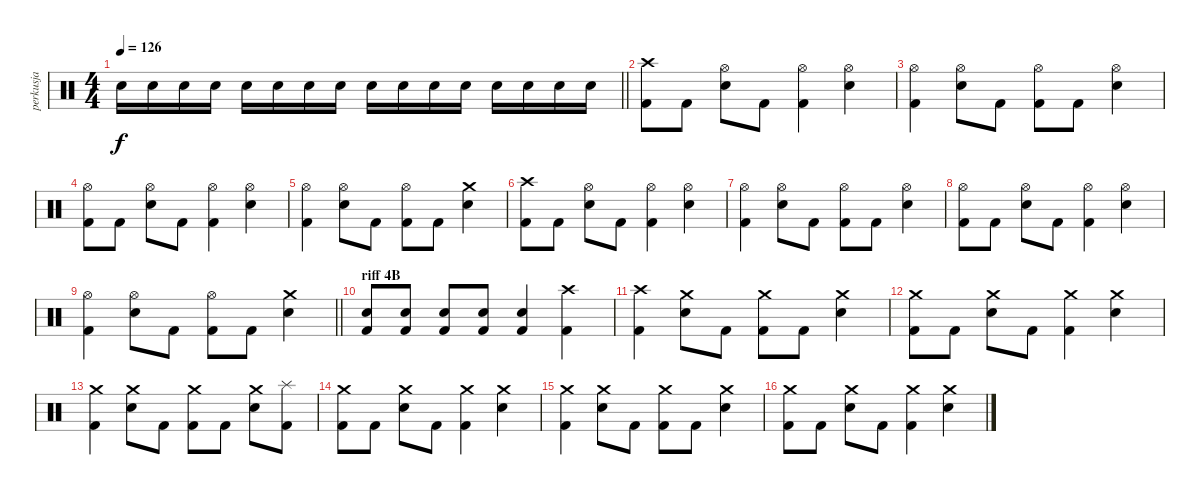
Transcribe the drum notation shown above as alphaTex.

\track ("perkusja" "perkusja") {instrument percussion}
\staff {score}
\articulation defaults
\ts (4 4)
\tempo 126
\clef neutral
\barLineRight lightlight
\ks c "Electric Snare (hit)".16{dy f} "Electric Snare (hit)".16 "Electric Snare (hit)".16 "Electric Snare (hit)".16 "Electric Snare (hit)".16 "Electric Snare (hit)".16 "Electric Snare (hit)".16 "Electric Snare (hit)".16 "Electric Snare (hit)".16 "Electric Snare (hit)".16 "Electric Snare (hit)".16 "Electric Snare (hit)".16 "Electric Snare (hit)".16 "Electric Snare (hit)".16 "Electric Snare (hit)".16 "Electric Snare (hit)".16
|
("Crash high (hit)" "Kick (hit) 2").8 "Kick (hit) 2".8 ("Hi-Hat (open)" "Electric Snare (hit)").8 "Kick (hit) 2".8 ("Hi-Hat (open)" "Kick (hit) 2").4 ("Hi-Hat (open)" "Electric Snare (hit)").4 |
("Hi-Hat (open)" "Kick (hit) 2").4 ("Hi-Hat (open)" "Electric Snare (hit)").8 "Kick (hit) 2".8 ("Hi-Hat (open)" "Kick (hit) 2").8 "Kick (hit) 2".8 ("Hi-Hat (open)" "Electric Snare (hit)").4 |
("Hi-Hat (open)" "Kick (hit) 2").8 "Kick (hit) 2".8 ("Hi-Hat (open)" "Electric Snare (hit)").8 "Kick (hit) 2".8 ("Hi-Hat (open)" "Kick (hit) 2").4 ("Hi-Hat (open)" "Electric Snare (hit)").4 |
("Hi-Hat (open)" "Kick (hit) 2").4 ("Hi-Hat (open)" "Electric Snare (hit)").8 "Kick (hit) 2".8 ("Hi-Hat (open)" "Kick (hit) 2").8 "Kick (hit) 2".8 ("Crash medium (hit)" "Electric Snare (hit)").4 |
("Crash high (hit)" "Kick (hit) 2").8 "Kick (hit) 2".8 ("Hi-Hat (open)" "Electric Snare (hit)").8 "Kick (hit) 2".8 ("Hi-Hat (open)" "Kick (hit) 2").4 ("Hi-Hat (open)" "Electric Snare (hit)").4 |
("Hi-Hat (open)" "Kick (hit) 2").4 ("Hi-Hat (open)" "Electric Snare (hit)").8 "Kick (hit) 2".8 ("Hi-Hat (open)" "Kick (hit) 2").8 "Kick (hit) 2".8 ("Hi-Hat (open)" "Electric Snare (hit)").4 |
("Hi-Hat (open)" "Kick (hit) 2").8 "Kick (hit) 2".8 ("Hi-Hat (open)" "Electric Snare (hit)").8 "Kick (hit) 2".8 ("Hi-Hat (open)" "Kick (hit) 2").4 ("Hi-Hat (open)" "Electric Snare (hit)").4 |
\barLineRight lightlight
("Hi-Hat (open)" "Kick (hit) 2").4 ("Hi-Hat (open)" "Electric Snare (hit)").8 "Kick (hit) 2".8 ("Hi-Hat (open)" "Kick (hit) 2").8 "Kick (hit) 2".8 ("Crash medium (hit)" "Electric Snare (hit)").4 |
\section ("" "riff 4B")
("Electric Snare (hit)" "Kick (hit) 2").8 ("Electric Snare (hit)" "Kick (hit) 2").8 ("Electric Snare (hit)" "Kick (hit) 2").8 ("Electric Snare (hit)" "Kick (hit) 2").8 ("Electric Snare (hit)" "Kick (hit) 2").4 ("Crash high (hit)" "Kick (hit) 2").4 |
("Crash high (hit)" "Kick (hit) 2").4 ("Crash medium (hit)" "Electric Snare (hit)").8 "Kick (hit) 2".8 ("Crash medium (hit)" "Kick (hit) 2").8 "Kick (hit) 2".8 ("Crash medium (hit)" "Electric Snare (hit)").4 |
("Crash medium (hit)" "Kick (hit) 2").8 "Kick (hit) 2".8 ("Crash medium (hit)" "Electric Snare (hit)").8 "Kick (hit) 2".8 ("Crash medium (hit)" "Kick (hit) 2").4 ("Crash medium (hit)" "Electric Snare (hit)").4 |
("Crash medium (hit)" "Kick (hit) 2").4 ("Crash medium (hit)" "Electric Snare (hit)").8 "Kick (hit) 2".8 ("Crash medium (hit)" "Kick (hit) 2").8 "Kick (hit) 2".8 ("Crash medium (hit)" "Electric Snare (hit)").8 ("Splash (hit)" "Kick (hit) 2").8 |
("Crash medium (hit)" "Kick (hit) 2").8 "Kick (hit) 2".8 ("Crash medium (hit)" "Electric Snare (hit)").8 "Kick (hit) 2".8 ("Crash medium (hit)" "Kick (hit) 2").4 ("Crash medium (hit)" "Electric Snare (hit)").4 |
("Crash medium (hit)" "Kick (hit) 2").4 ("Crash medium (hit)" "Electric Snare (hit)").8 "Kick (hit) 2".8 ("Crash medium (hit)" "Kick (hit) 2").8 "Kick (hit) 2".8 ("Crash medium (hit)" "Electric Snare (hit)").4 |
("Crash medium (hit)" "Kick (hit) 2").8 "Kick (hit) 2".8 ("Crash medium (hit)" "Electric Snare (hit)").8 "Kick (hit) 2".8 ("Crash medium (hit)" "Kick (hit) 2").4 ("Crash medium (hit)" "Electric Snare (hit)").4
